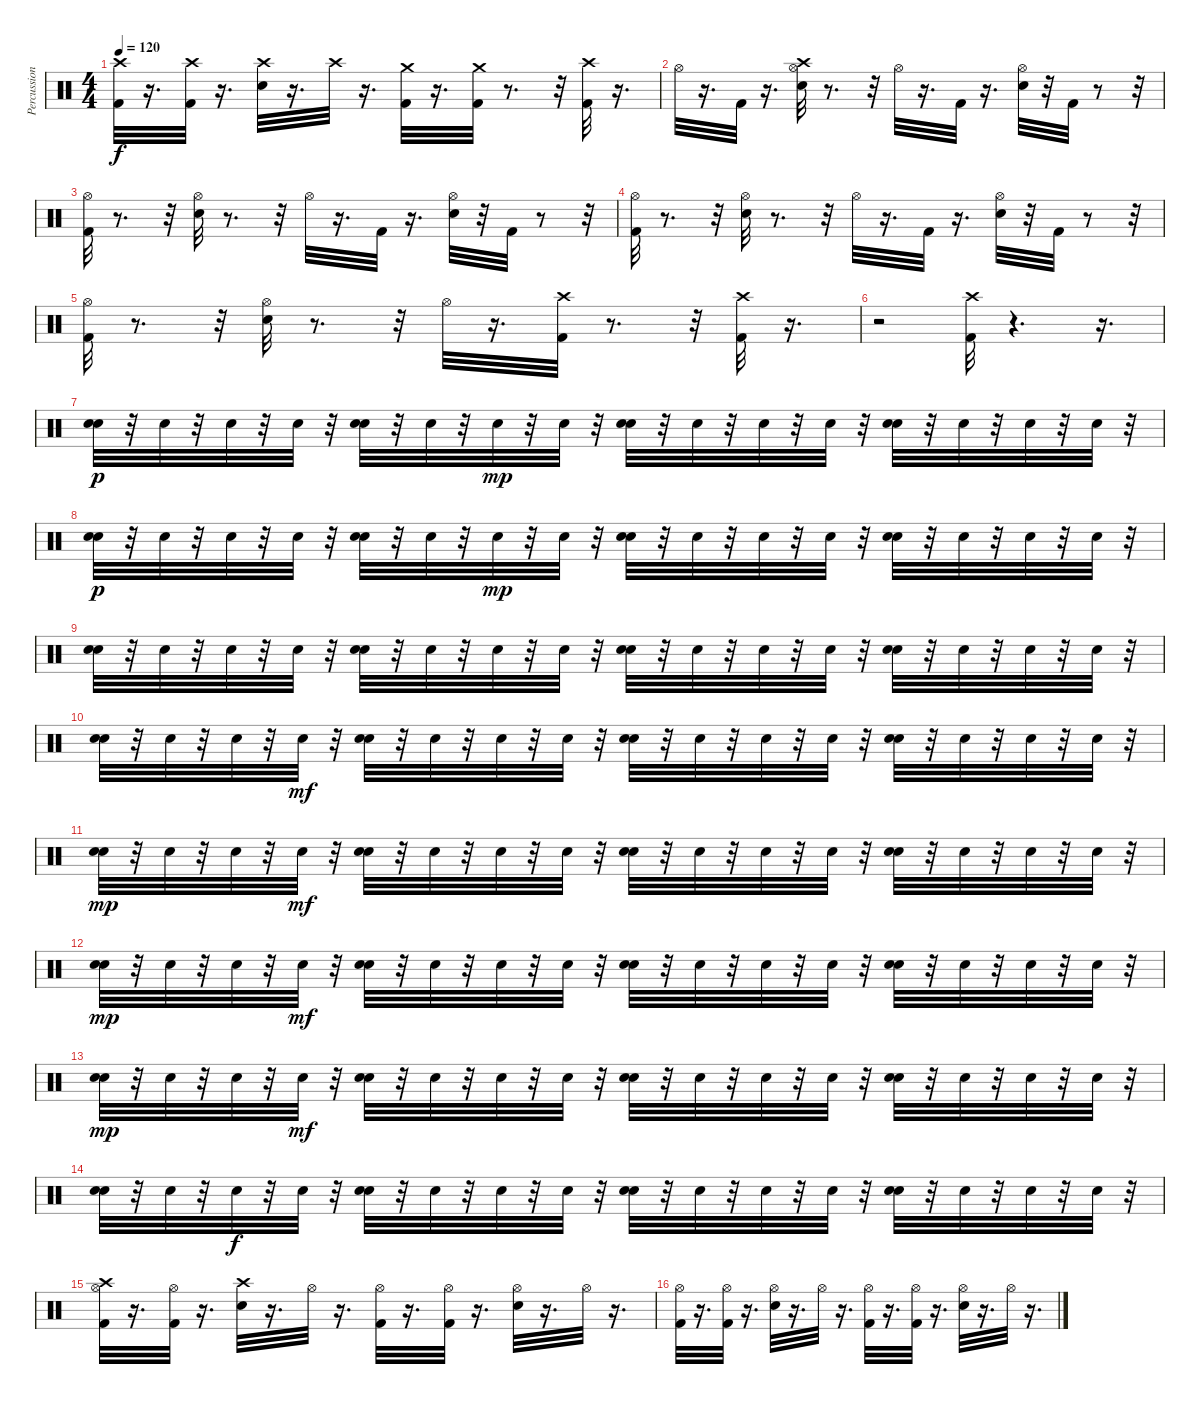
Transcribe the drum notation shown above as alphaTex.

\track ("Percussion" "Percussion") {instrument percussion}
\staff {score}
\articulation defaults
\ts (4 4)
\tempo 120
\clef neutral
\ks c
("Kick (hit) 2" "Crash high (hit)").32{dy f} r.16{d} ("Crash high (hit)" "Kick (hit) 2").32 r.16{d} ("Electric Snare (hit)" "Crash high (hit)").32 r.16{d} "Crash high (hit)".32 r.16{d} ("Crash medium (hit)" "Kick (hit) 2").32 r.16{d} ("Crash medium (hit)" "Kick (hit) 2").32 r.8{d} r.32 ("Kick (hit) 2" "Crash high (hit)").32 r.16{d} |
"Hi-Hat (open)".32 r.16{d} "Kick (hit) 2".32 r.16{d} ("Hi-Hat (open)" "Electric Snare (hit)" "Crash high (hit)").32 r.8{d} r.32 "Hi-Hat (open)".32 r.16{d} "Kick (hit) 2".32 r.16{d} ("Electric Snare (hit)" "Hi-Hat (open)").32 r.32 "Kick (hit) 2".32 r.8 r.32 |
("Kick (hit) 2" "Hi-Hat (open)").32 r.8{d} r.32 ("Electric Snare (hit)" "Hi-Hat (open)").32 r.8{d} r.32 "Hi-Hat (open)".32 r.16{d} "Kick (hit) 2".32 r.16{d} ("Electric Snare (hit)" "Hi-Hat (open)").32 r.32 "Kick (hit) 2".32 r.8 r.32 |
("Kick (hit) 2" "Hi-Hat (open)").32 r.8{d} r.32 ("Electric Snare (hit)" "Hi-Hat (open)").32 r.8{d} r.32 "Hi-Hat (open)".32 r.16{d} "Kick (hit) 2".32 r.16{d} ("Electric Snare (hit)" "Hi-Hat (open)").32 r.32 "Kick (hit) 2".32 r.8 r.32 |
("Kick (hit) 2" "Hi-Hat (open)").32 r.8{d} r.32 ("Electric Snare (hit)" "Hi-Hat (open)").32 r.8{d} r.32 "Hi-Hat (open)".32 r.16{d} ("Crash high (hit)" "Kick (hit) 2").32 r.8{d} r.32 ("Crash high (hit)" "Kick (hit) 2").32 r.16{d} |
r.2 ("Crash high (hit)" "Kick (hit) 2").32 r.4{d} r.16{d} |
("Electric Snare (hit)" "Snare (hit) 2").32{dy p} r.32 "Snare (hit) 2".32 r.32 "Snare (hit) 2".32 r.32 "Snare (hit) 2".32 r.32 ("Snare (hit) 2" "Electric Snare (hit)").32 r.32 "Snare (hit) 2".32 r.32 "Snare (hit) 2".32{dy mp} r.32 "Snare (hit) 2".32 r.32 ("Electric Snare (hit)" "Snare (hit) 2").32 r.32 "Snare (hit) 2".32 r.32 "Snare (hit) 2".32 r.32 "Snare (hit) 2".32 r.32 ("Snare (hit) 2" "Electric Snare (hit)").32 r.32 "Snare (hit) 2".32 r.32 "Snare (hit) 2".32 r.32 "Snare (hit) 2".32 r.32 |
("Electric Snare (hit)" "Snare (hit) 2").32{dy p} r.32 "Snare (hit) 2".32 r.32 "Snare (hit) 2".32 r.32 "Snare (hit) 2".32 r.32 ("Snare (hit) 2" "Electric Snare (hit)").32 r.32 "Snare (hit) 2".32 r.32 "Snare (hit) 2".32{dy mp} r.32 "Snare (hit) 2".32 r.32 ("Electric Snare (hit)" "Snare (hit) 2").32 r.32 "Snare (hit) 2".32 r.32 "Snare (hit) 2".32 r.32 "Snare (hit) 2".32 r.32 ("Snare (hit) 2" "Electric Snare (hit)").32 r.32 "Snare (hit) 2".32 r.32 "Snare (hit) 2".32 r.32 "Snare (hit) 2".32 r.32 |
("Electric Snare (hit)" "Snare (hit) 2").32 r.32 "Snare (hit) 2".32 r.32 "Snare (hit) 2".32 r.32 "Snare (hit) 2".32 r.32 ("Snare (hit) 2" "Electric Snare (hit)").32 r.32 "Snare (hit) 2".32 r.32 "Snare (hit) 2".32 r.32 "Snare (hit) 2".32 r.32 ("Electric Snare (hit)" "Snare (hit) 2").32 r.32 "Snare (hit) 2".32 r.32 "Snare (hit) 2".32 r.32 "Snare (hit) 2".32 r.32 ("Snare (hit) 2" "Electric Snare (hit)").32 r.32 "Snare (hit) 2".32 r.32 "Snare (hit) 2".32 r.32 "Snare (hit) 2".32 r.32 |
("Electric Snare (hit)" "Snare (hit) 2").32 r.32 "Snare (hit) 2".32 r.32 "Snare (hit) 2".32 r.32 "Snare (hit) 2".32{dy mf} r.32 ("Snare (hit) 2" "Electric Snare (hit)").32 r.32 "Snare (hit) 2".32 r.32 "Snare (hit) 2".32 r.32 "Snare (hit) 2".32 r.32 ("Electric Snare (hit)" "Snare (hit) 2").32 r.32 "Snare (hit) 2".32 r.32 "Snare (hit) 2".32 r.32 "Snare (hit) 2".32 r.32 ("Snare (hit) 2" "Electric Snare (hit)").32 r.32 "Snare (hit) 2".32 r.32 "Snare (hit) 2".32 r.32 "Snare (hit) 2".32 r.32 |
("Electric Snare (hit)" "Snare (hit) 2").32{dy mp} r.32 "Snare (hit) 2".32 r.32 "Snare (hit) 2".32 r.32 "Snare (hit) 2".32{dy mf} r.32 ("Snare (hit) 2" "Electric Snare (hit)").32 r.32 "Snare (hit) 2".32 r.32 "Snare (hit) 2".32 r.32 "Snare (hit) 2".32 r.32 ("Electric Snare (hit)" "Snare (hit) 2").32 r.32 "Snare (hit) 2".32 r.32 "Snare (hit) 2".32 r.32 "Snare (hit) 2".32 r.32 ("Snare (hit) 2" "Electric Snare (hit)").32 r.32 "Snare (hit) 2".32 r.32 "Snare (hit) 2".32 r.32 "Snare (hit) 2".32 r.32 |
("Electric Snare (hit)" "Snare (hit) 2").32{dy mp} r.32 "Snare (hit) 2".32 r.32 "Snare (hit) 2".32 r.32 "Snare (hit) 2".32{dy mf} r.32 ("Snare (hit) 2" "Electric Snare (hit)").32 r.32 "Snare (hit) 2".32 r.32 "Snare (hit) 2".32 r.32 "Snare (hit) 2".32 r.32 ("Electric Snare (hit)" "Snare (hit) 2").32 r.32 "Snare (hit) 2".32 r.32 "Snare (hit) 2".32 r.32 "Snare (hit) 2".32 r.32 ("Snare (hit) 2" "Electric Snare (hit)").32 r.32 "Snare (hit) 2".32 r.32 "Snare (hit) 2".32 r.32 "Snare (hit) 2".32 r.32 |
("Electric Snare (hit)" "Snare (hit) 2").32{dy mp} r.32 "Snare (hit) 2".32 r.32 "Snare (hit) 2".32 r.32 "Snare (hit) 2".32{dy mf} r.32 ("Snare (hit) 2" "Electric Snare (hit)").32 r.32 "Snare (hit) 2".32 r.32 "Snare (hit) 2".32 r.32 "Snare (hit) 2".32 r.32 ("Electric Snare (hit)" "Snare (hit) 2").32 r.32 "Snare (hit) 2".32 r.32 "Snare (hit) 2".32 r.32 "Snare (hit) 2".32 r.32 ("Snare (hit) 2" "Electric Snare (hit)").32 r.32 "Snare (hit) 2".32 r.32 "Snare (hit) 2".32 r.32 "Snare (hit) 2".32 r.32 |
("Electric Snare (hit)" "Snare (hit) 2").32 r.32 "Snare (hit) 2".32 r.32 "Snare (hit) 2".32{dy f} r.32 "Snare (hit) 2".32 r.32 ("Snare (hit) 2" "Electric Snare (hit)").32 r.32 "Snare (hit) 2".32 r.32 "Snare (hit) 2".32 r.32 "Snare (hit) 2".32 r.32 ("Electric Snare (hit)" "Snare (hit) 2").32 r.32 "Snare (hit) 2".32 r.32 "Snare (hit) 2".32 r.32 "Snare (hit) 2".32 r.32 ("Snare (hit) 2" "Electric Snare (hit)").32 r.32 "Snare (hit) 2".32 r.32 "Snare (hit) 2".32 r.32 "Snare (hit) 2".32 r.32 |
("Crash high (hit)" "Kick (hit) 2" "Hi-Hat (open)").32 r.16{d} ("Hi-Hat (open)" "Kick (hit) 2").32 r.16{d} ("Crash high (hit)" "Electric Snare (hit)").32 r.16{d} "Hi-Hat (open)".32 r.16{d} ("Kick (hit) 2" "Hi-Hat (open)").32 r.16{d} ("Hi-Hat (open)" "Kick (hit) 2").32 r.16{d} ("Hi-Hat (open)" "Electric Snare (hit)").32 r.16{d} "Hi-Hat (open)".32 r.16{d} |
("Kick (hit) 2" "Hi-Hat (open)").32 r.16{d} ("Kick (hit) 2" "Hi-Hat (open)").32 r.16{d} ("Electric Snare (hit)" "Hi-Hat (open)").32 r.16{d} "Hi-Hat (open)".32 r.16{d} ("Kick (hit) 2" "Hi-Hat (open)").32 r.16{d} ("Kick (hit) 2" "Hi-Hat (open)").32 r.16{d} ("Electric Snare (hit)" "Hi-Hat (open)").32 r.16{d} "Hi-Hat (open)".32 r.16{d}
